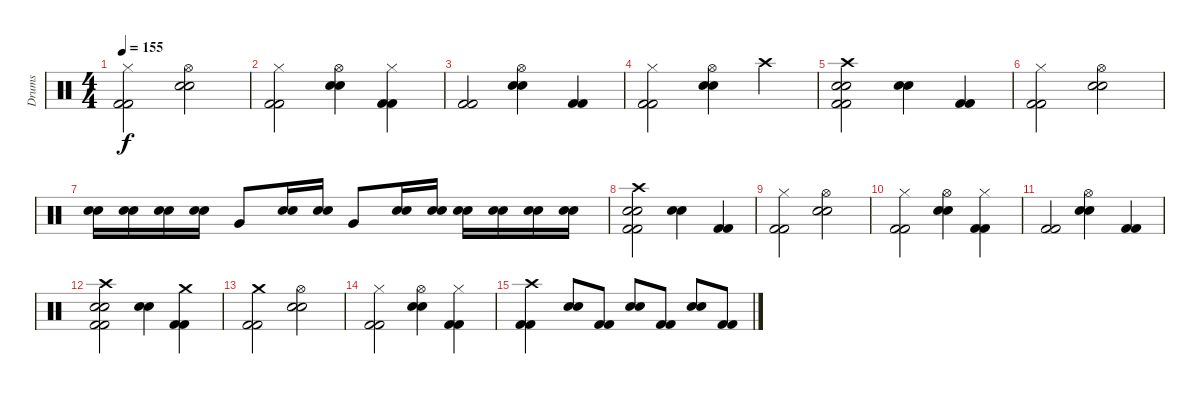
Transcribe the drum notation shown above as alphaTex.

\track ("Drums" "Drums") {instrument percussion}
\staff {score}
\articulation defaults
\ts (4 4)
\tempo 155
\clef neutral
\ks c
("Hi-Hat (closed)" "Kick (hit) 2" "Kick (hit) 2").2{dy f} ("Hi-Hat (open)" "Snare (hit) 2" "Snare (hit) 2").2 |
("Hi-Hat (closed)" "Kick (hit) 2" "Kick (hit) 2").2 ("Hi-Hat (open)" "Snare (hit) 2" "Snare (hit) 2").4 ("Hi-Hat (closed)" "Kick (hit) 2" "Kick (hit) 2").4 |
("Kick (hit) 2" "Kick (hit) 2").2 ("Hi-Hat (open)" "Snare (hit) 2" "Snare (hit) 2").4 ("Kick (hit) 2" "Kick (hit) 2").4 |
("Hi-Hat (closed)" "Kick (hit) 2" "Kick (hit) 2").2 ("Hi-Hat (open)" "Snare (hit) 2" "Snare (hit) 2").4 "Crash high (hit)".4 |
("Crash high (hit)" "Snare (hit) 2" "Snare (hit) 2" "Kick (hit) 2" "Kick (hit) 2").2 ("Snare (hit) 2" "Snare (hit) 2").4 ("Kick (hit) 2" "Kick (hit) 2").4 |
("Hi-Hat (closed)" "Kick (hit) 2" "Kick (hit) 2").2 ("Hi-Hat (open)" "Snare (hit) 2" "Snare (hit) 2").2 |
("Snare (hit) 2" "Snare (hit) 2").16 ("Snare (hit) 2" "Snare (hit) 2").16 ("Snare (hit) 2" "Snare (hit) 2").16 ("Snare (hit) 2" "Snare (hit) 2").16 "Very Low Tom (hit)".8 ("Snare (hit) 2" "Snare (hit) 2").16 ("Snare (hit) 2" "Snare (hit) 2").16 "Very Low Tom (hit)".8 ("Snare (hit) 2" "Snare (hit) 2").16 ("Snare (hit) 2" "Snare (hit) 2").16 ("Snare (hit) 2" "Snare (hit) 2").16 ("Snare (hit) 2" "Snare (hit) 2").16 ("Snare (hit) 2" "Snare (hit) 2").16 ("Snare (hit) 2" "Snare (hit) 2").16 |
("Crash high (hit)" "Snare (hit) 2" "Snare (hit) 2" "Kick (hit) 2" "Kick (hit) 2").2 ("Snare (hit) 2" "Snare (hit) 2").4 ("Kick (hit) 2" "Kick (hit) 2").4 |
("Hi-Hat (closed)" "Kick (hit) 2" "Kick (hit) 2").2 ("Hi-Hat (open)" "Snare (hit) 2" "Snare (hit) 2").2 |
("Hi-Hat (closed)" "Kick (hit) 2" "Kick (hit) 2").2 ("Hi-Hat (open)" "Snare (hit) 2" "Snare (hit) 2").4 ("Hi-Hat (closed)" "Kick (hit) 2" "Kick (hit) 2").4 |
("Kick (hit) 2" "Kick (hit) 2").2 ("Hi-Hat (open)" "Snare (hit) 2" "Snare (hit) 2").4 ("Kick (hit) 2" "Kick (hit) 2").4 |
("Crash high (hit)" "Snare (hit) 2" "Snare (hit) 2" "Kick (hit) 2" "Kick (hit) 2").2 ("Snare (hit) 2" "Snare (hit) 2").4 ("Crash medium (hit)" "Kick (hit) 2" "Kick (hit) 2").4 |
("Crash medium (hit)" "Kick (hit) 2" "Kick (hit) 2").2 ("Hi-Hat (open)" "Snare (hit) 2" "Snare (hit) 2").2 |
("Hi-Hat (closed)" "Kick (hit) 2" "Kick (hit) 2").2 ("Hi-Hat (open)" "Snare (hit) 2" "Snare (hit) 2").4 ("Hi-Hat (closed)" "Kick (hit) 2" "Kick (hit) 2").4 |
("Crash high (hit)" "Kick (hit) 2" "Kick (hit) 2").4 ("Snare (hit) 2" "Snare (hit) 2").8 ("Kick (hit) 2" "Kick (hit) 2").8 ("Snare (hit) 2" "Snare (hit) 2").8 ("Kick (hit) 2" "Kick (hit) 2").8 ("Snare (hit) 2" "Snare (hit) 2").8 ("Kick (hit) 2" "Kick (hit) 2").8
